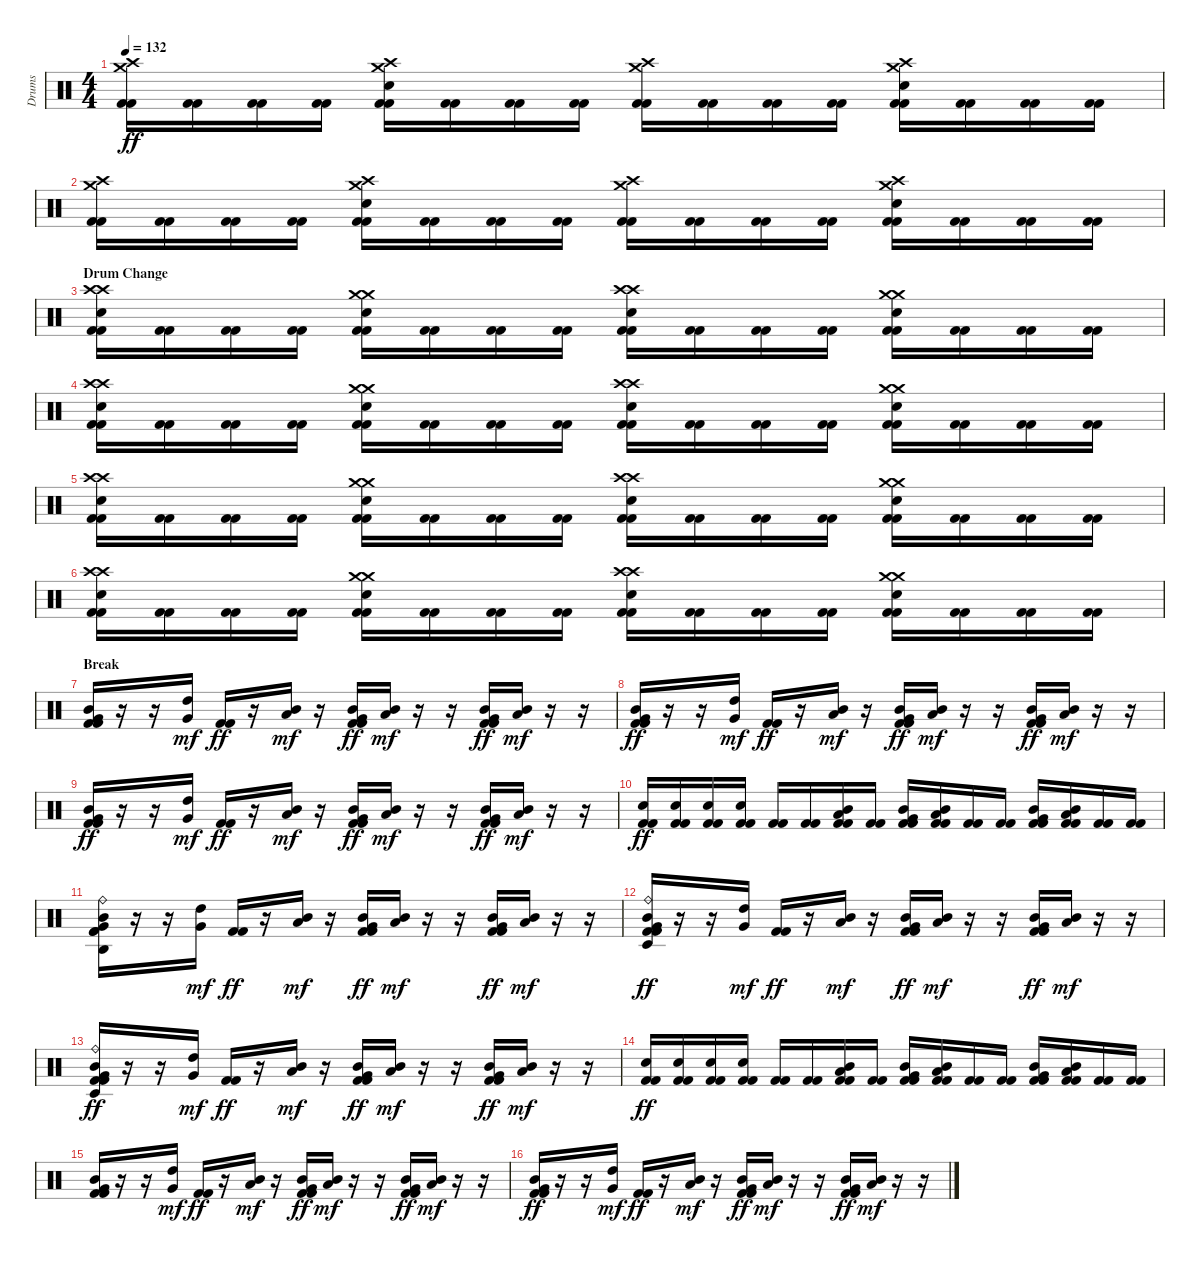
\track ("Drums" "Drums") {instrument percussion}
\staff {score}
\articulation defaults
\ts (4 4)
\tempo 132
\clef neutral
\ks c
("Crash high (hit)" "Crash medium (hit)" "Kick (hit) 2" "Kick (hit) 2").16{dy ff} ("Kick (hit) 2" "Kick (hit) 2").16 ("Kick (hit) 2" "Kick (hit) 2").16 ("Kick (hit) 2" "Kick (hit) 2").16 ("Crash high (hit)" "Crash medium (hit)" "Electric Snare (hit)" "Kick (hit) 2" "Kick (hit) 2").16 ("Kick (hit) 2" "Kick (hit) 2").16 ("Kick (hit) 2" "Kick (hit) 2").16 ("Kick (hit) 2" "Kick (hit) 2").16 ("Crash high (hit)" "Crash medium (hit)" "Kick (hit) 2" "Kick (hit) 2").16 ("Kick (hit) 2" "Kick (hit) 2").16 ("Kick (hit) 2" "Kick (hit) 2").16 ("Kick (hit) 2" "Kick (hit) 2").16 ("Crash high (hit)" "Crash medium (hit)" "Electric Snare (hit)" "Kick (hit) 2" "Kick (hit) 2").16 ("Kick (hit) 2" "Kick (hit) 2").16 ("Kick (hit) 2" "Kick (hit) 2").16 ("Kick (hit) 2" "Kick (hit) 2").16 |
("Crash high (hit)" "Crash medium (hit)" "Kick (hit) 2" "Kick (hit) 2").16 ("Kick (hit) 2" "Kick (hit) 2").16 ("Kick (hit) 2" "Kick (hit) 2").16 ("Kick (hit) 2" "Kick (hit) 2").16 ("Crash high (hit)" "Crash medium (hit)" "Electric Snare (hit)" "Kick (hit) 2" "Kick (hit) 2").16 ("Kick (hit) 2" "Kick (hit) 2").16 ("Kick (hit) 2" "Kick (hit) 2").16 ("Kick (hit) 2" "Kick (hit) 2").16 ("Crash high (hit)" "Crash medium (hit)" "Kick (hit) 2" "Kick (hit) 2").16 ("Kick (hit) 2" "Kick (hit) 2").16 ("Kick (hit) 2" "Kick (hit) 2").16 ("Kick (hit) 2" "Kick (hit) 2").16 ("Crash high (hit)" "Crash medium (hit)" "Electric Snare (hit)" "Kick (hit) 2" "Kick (hit) 2").16 ("Kick (hit) 2" "Kick (hit) 2").16 ("Kick (hit) 2" "Kick (hit) 2").16 ("Kick (hit) 2" "Kick (hit) 2").16 |
\section ("" "Drum Change")
("Crash high (hit)" "Crash high (hit)" "Electric Snare (hit)" "Kick (hit) 2" "Kick (hit) 2").16 ("Kick (hit) 2" "Kick (hit) 2").16 ("Kick (hit) 2" "Kick (hit) 2").16 ("Kick (hit) 2" "Kick (hit) 2").16 ("Crash medium (hit)" "Crash medium (hit)" "Electric Snare (hit)" "Kick (hit) 2" "Kick (hit) 2").16 ("Kick (hit) 2" "Kick (hit) 2").16 ("Kick (hit) 2" "Kick (hit) 2").16 ("Kick (hit) 2" "Kick (hit) 2").16 ("Crash high (hit)" "Crash high (hit)" "Electric Snare (hit)" "Kick (hit) 2" "Kick (hit) 2").16 ("Kick (hit) 2" "Kick (hit) 2").16 ("Kick (hit) 2" "Kick (hit) 2").16 ("Kick (hit) 2" "Kick (hit) 2").16 ("Crash medium (hit)" "Crash medium (hit)" "Electric Snare (hit)" "Kick (hit) 2" "Kick (hit) 2").16 ("Kick (hit) 2" "Kick (hit) 2").16 ("Kick (hit) 2" "Kick (hit) 2").16 ("Kick (hit) 2" "Kick (hit) 2").16 |
("Crash high (hit)" "Crash high (hit)" "Electric Snare (hit)" "Kick (hit) 2" "Kick (hit) 2").16 ("Kick (hit) 2" "Kick (hit) 2").16 ("Kick (hit) 2" "Kick (hit) 2").16 ("Kick (hit) 2" "Kick (hit) 2").16 ("Crash medium (hit)" "Crash medium (hit)" "Electric Snare (hit)" "Kick (hit) 2" "Kick (hit) 2").16 ("Kick (hit) 2" "Kick (hit) 2").16 ("Kick (hit) 2" "Kick (hit) 2").16 ("Kick (hit) 2" "Kick (hit) 2").16 ("Crash high (hit)" "Crash high (hit)" "Electric Snare (hit)" "Kick (hit) 2" "Kick (hit) 2").16 ("Kick (hit) 2" "Kick (hit) 2").16 ("Kick (hit) 2" "Kick (hit) 2").16 ("Kick (hit) 2" "Kick (hit) 2").16 ("Crash medium (hit)" "Crash medium (hit)" "Electric Snare (hit)" "Kick (hit) 2" "Kick (hit) 2").16 ("Kick (hit) 2" "Kick (hit) 2").16 ("Kick (hit) 2" "Kick (hit) 2").16 ("Kick (hit) 2" "Kick (hit) 2").16 |
("Crash high (hit)" "Crash high (hit)" "Electric Snare (hit)" "Kick (hit) 2" "Kick (hit) 2").16 ("Kick (hit) 2" "Kick (hit) 2").16 ("Kick (hit) 2" "Kick (hit) 2").16 ("Kick (hit) 2" "Kick (hit) 2").16 ("Crash medium (hit)" "Crash medium (hit)" "Electric Snare (hit)" "Kick (hit) 2" "Kick (hit) 2").16 ("Kick (hit) 2" "Kick (hit) 2").16 ("Kick (hit) 2" "Kick (hit) 2").16 ("Kick (hit) 2" "Kick (hit) 2").16 ("Crash high (hit)" "Crash high (hit)" "Electric Snare (hit)" "Kick (hit) 2" "Kick (hit) 2").16 ("Kick (hit) 2" "Kick (hit) 2").16 ("Kick (hit) 2" "Kick (hit) 2").16 ("Kick (hit) 2" "Kick (hit) 2").16 ("Crash medium (hit)" "Crash medium (hit)" "Electric Snare (hit)" "Kick (hit) 2" "Kick (hit) 2").16 ("Kick (hit) 2" "Kick (hit) 2").16 ("Kick (hit) 2" "Kick (hit) 2").16 ("Kick (hit) 2" "Kick (hit) 2").16 |
("Crash high (hit)" "Crash high (hit)" "Electric Snare (hit)" "Kick (hit) 2" "Kick (hit) 2").16 ("Kick (hit) 2" "Kick (hit) 2").16 ("Kick (hit) 2" "Kick (hit) 2").16 ("Kick (hit) 2" "Kick (hit) 2").16 ("Crash medium (hit)" "Crash medium (hit)" "Electric Snare (hit)" "Kick (hit) 2" "Kick (hit) 2").16 ("Kick (hit) 2" "Kick (hit) 2").16 ("Kick (hit) 2" "Kick (hit) 2").16 ("Kick (hit) 2" "Kick (hit) 2").16 ("Crash high (hit)" "Crash high (hit)" "Electric Snare (hit)" "Kick (hit) 2" "Kick (hit) 2").16 ("Kick (hit) 2" "Kick (hit) 2").16 ("Kick (hit) 2" "Kick (hit) 2").16 ("Kick (hit) 2" "Kick (hit) 2").16 ("Crash medium (hit)" "Crash medium (hit)" "Electric Snare (hit)" "Kick (hit) 2" "Kick (hit) 2").16 ("Kick (hit) 2" "Kick (hit) 2").16 ("Kick (hit) 2" "Kick (hit) 2").16 ("Kick (hit) 2" "Kick (hit) 2").16 |
\section ("" "Break")
("Mid Tom (hit)" "Very Low Tom (hit)" "Kick (hit) 2" "Kick (hit) 2").16 r.16 r.16 ("High Tom (hit)" "Very Low Tom (hit)").16{dy mf} ("Kick (hit) 2" "Kick (hit) 2").16{dy ff} r.16 ("Mid Tom (hit)" "Low Tom (hit)").16{dy mf} r.16 ("Mid Tom (hit)" "Very Low Tom (hit)" "Kick (hit) 2" "Kick (hit) 2").16{dy ff} ("Low Tom (hit)" "Mid Tom (hit)").16{dy mf} r.16 r.16 ("Mid Tom (hit)" "Very Low Tom (hit)" "Kick (hit) 2" "Kick (hit) 2").16{dy ff} ("Mid Tom (hit)" "Low Tom (hit)").16{dy mf} r.16 r.16 |
("Mid Tom (hit)" "Very Low Tom (hit)" "Kick (hit) 2" "Kick (hit) 2").16{dy ff} r.16 r.16 ("High Tom (hit)" "Very Low Tom (hit)").16{dy mf} ("Kick (hit) 2" "Kick (hit) 2").16{dy ff} r.16 ("Mid Tom (hit)" "Low Tom (hit)").16{dy mf} r.16 ("Mid Tom (hit)" "Very Low Tom (hit)" "Kick (hit) 2" "Kick (hit) 2").16{dy ff} ("Low Tom (hit)" "Mid Tom (hit)").16{dy mf} r.16 r.16 ("Mid Tom (hit)" "Very Low Tom (hit)" "Kick (hit) 2" "Kick (hit) 2").16{dy ff} ("Mid Tom (hit)" "Low Tom (hit)").16{dy mf} r.16 r.16 |
("Mid Tom (hit)" "Very Low Tom (hit)" "Kick (hit) 2" "Kick (hit) 2").16{dy ff} r.16 r.16 ("High Tom (hit)" "Very Low Tom (hit)").16{dy mf} ("Kick (hit) 2" "Kick (hit) 2").16{dy ff} r.16 ("Mid Tom (hit)" "Low Tom (hit)").16{dy mf} r.16 ("Mid Tom (hit)" "Very Low Tom (hit)" "Kick (hit) 2" "Kick (hit) 2").16{dy ff} ("Low Tom (hit)" "Mid Tom (hit)").16{dy mf} r.16 r.16 ("Mid Tom (hit)" "Very Low Tom (hit)" "Kick (hit) 2" "Kick (hit) 2").16{dy ff} ("Mid Tom (hit)" "Low Tom (hit)").16{dy mf} r.16 r.16 |
("Electric Snare (hit)" "Kick (hit) 2" "Kick (hit) 2").16{dy ff} ("Electric Snare (hit)" "Kick (hit) 2" "Kick (hit) 2").16 ("Electric Snare (hit)" "Kick (hit) 2" "Kick (hit) 2").16 ("Electric Snare (hit)" "Kick (hit) 2" "Kick (hit) 2").16 ("Kick (hit) 2" "Kick (hit) 2").16 ("Kick (hit) 2" "Kick (hit) 2").16 ("Mid Tom (hit)" "Low Tom (hit)" "Kick (hit) 2" "Kick (hit) 2").16 ("Kick (hit) 2" "Kick (hit) 2").16 ("Mid Tom (hit)" "Very Low Tom (hit)" "Kick (hit) 2" "Kick (hit) 2").16 ("Low Tom (hit)" "Mid Tom (hit)" "Kick (hit) 2" "Kick (hit) 2").16 ("Kick (hit) 2" "Kick (hit) 2").16 ("Kick (hit) 2" "Kick (hit) 2").16 ("Mid Tom (hit)" "Very Low Tom (hit)" "Kick (hit) 2" "Kick (hit) 2").16 ("Mid Tom (hit)" "Low Tom (hit)" "Kick (hit) 2" "Kick (hit) 2").16 ("Kick (hit) 2" "Kick (hit) 2").16 ("Kick (hit) 2" "Kick (hit) 2").16 |
("Agogo high (hit)" "Mid Tom (hit)" "Very Low Tom (hit)" "Ride (bell)" "Kick (hit) 2" "Kick (hit) 2").16 r.16 r.16 ("High Tom (hit)" "Very Low Tom (hit)").16{dy mf} ("Kick (hit) 2" "Kick (hit) 2").16{dy ff} r.16 ("Mid Tom (hit)" "Low Tom (hit)").16{dy mf} r.16 ("Mid Tom (hit)" "Very Low Tom (hit)" "Kick (hit) 2" "Kick (hit) 2").16{dy ff} ("Low Tom (hit)" "Mid Tom (hit)").16{dy mf} r.16 r.16 ("Mid Tom (hit)" "Very Low Tom (hit)" "Kick (hit) 2" "Kick (hit) 2").16{dy ff} ("Mid Tom (hit)" "Low Tom (hit)").16{dy mf} r.16 r.16 |
("Timbale low (hit)" "Mid Tom (hit)" "Very Low Tom (hit)" "Ride (bell)" "Kick (hit) 2" "Kick (hit) 2").16{dy ff} r.16 r.16 ("High Tom (hit)" "Very Low Tom (hit)").16{dy mf} ("Kick (hit) 2" "Kick (hit) 2").16{dy ff} r.16 ("Mid Tom (hit)" "Low Tom (hit)").16{dy mf} r.16 ("Mid Tom (hit)" "Very Low Tom (hit)" "Kick (hit) 2" "Kick (hit) 2").16{dy ff} ("Low Tom (hit)" "Mid Tom (hit)").16{dy mf} r.16 r.16 ("Mid Tom (hit)" "Very Low Tom (hit)" "Kick (hit) 2" "Kick (hit) 2").16{dy ff} ("Mid Tom (hit)" "Low Tom (hit)").16{dy mf} r.16 r.16 |
("Timbale low (hit)" "Mid Tom (hit)" "Very Low Tom (hit)" "Ride (bell)" "Kick (hit) 2" "Kick (hit) 2").16{dy ff} r.16 r.16 ("High Tom (hit)" "Very Low Tom (hit)").16{dy mf} ("Kick (hit) 2" "Kick (hit) 2").16{dy ff} r.16 ("Mid Tom (hit)" "Low Tom (hit)").16{dy mf} r.16 ("Mid Tom (hit)" "Very Low Tom (hit)" "Kick (hit) 2" "Kick (hit) 2").16{dy ff} ("Low Tom (hit)" "Mid Tom (hit)").16{dy mf} r.16 r.16 ("Mid Tom (hit)" "Very Low Tom (hit)" "Kick (hit) 2" "Kick (hit) 2").16{dy ff} ("Mid Tom (hit)" "Low Tom (hit)").16{dy mf} r.16 r.16 |
("Electric Snare (hit)" "Kick (hit) 2" "Kick (hit) 2").16{dy ff} ("Electric Snare (hit)" "Kick (hit) 2" "Kick (hit) 2").16 ("Electric Snare (hit)" "Kick (hit) 2" "Kick (hit) 2").16 ("Electric Snare (hit)" "Kick (hit) 2" "Kick (hit) 2").16 ("Kick (hit) 2" "Kick (hit) 2").16 ("Kick (hit) 2" "Kick (hit) 2").16 ("Mid Tom (hit)" "Low Tom (hit)" "Kick (hit) 2" "Kick (hit) 2").16 ("Kick (hit) 2" "Kick (hit) 2").16 ("Mid Tom (hit)" "Very Low Tom (hit)" "Kick (hit) 2" "Kick (hit) 2").16 ("Low Tom (hit)" "Mid Tom (hit)" "Kick (hit) 2" "Kick (hit) 2").16 ("Kick (hit) 2" "Kick (hit) 2").16 ("Kick (hit) 2" "Kick (hit) 2").16 ("Mid Tom (hit)" "Very Low Tom (hit)" "Kick (hit) 2" "Kick (hit) 2").16 ("Mid Tom (hit)" "Low Tom (hit)" "Kick (hit) 2" "Kick (hit) 2").16 ("Kick (hit) 2" "Kick (hit) 2").16 ("Kick (hit) 2" "Kick (hit) 2").16 |
("Mid Tom (hit)" "Very Low Tom (hit)" "Kick (hit) 2" "Kick (hit) 2").16 r.16 r.16 ("High Tom (hit)" "Very Low Tom (hit)").16{dy mf} ("Kick (hit) 2" "Kick (hit) 2").16{dy ff} r.16 ("Mid Tom (hit)" "Low Tom (hit)").16{dy mf} r.16 ("Mid Tom (hit)" "Very Low Tom (hit)" "Kick (hit) 2" "Kick (hit) 2").16{dy ff} ("Low Tom (hit)" "Mid Tom (hit)").16{dy mf} r.16 r.16 ("Mid Tom (hit)" "Very Low Tom (hit)" "Kick (hit) 2" "Kick (hit) 2").16{dy ff} ("Mid Tom (hit)" "Low Tom (hit)").16{dy mf} r.16 r.16 |
("Mid Tom (hit)" "Very Low Tom (hit)" "Kick (hit) 2" "Kick (hit) 2").16{dy ff} r.16 r.16 ("High Tom (hit)" "Very Low Tom (hit)").16{dy mf} ("Kick (hit) 2" "Kick (hit) 2").16{dy ff} r.16 ("Mid Tom (hit)" "Low Tom (hit)").16{dy mf} r.16 ("Mid Tom (hit)" "Very Low Tom (hit)" "Kick (hit) 2" "Kick (hit) 2").16{dy ff} ("Low Tom (hit)" "Mid Tom (hit)").16{dy mf} r.16 r.16 ("Mid Tom (hit)" "Very Low Tom (hit)" "Kick (hit) 2" "Kick (hit) 2").16{dy ff} ("Mid Tom (hit)" "Low Tom (hit)").16{dy mf} r.16 r.16
